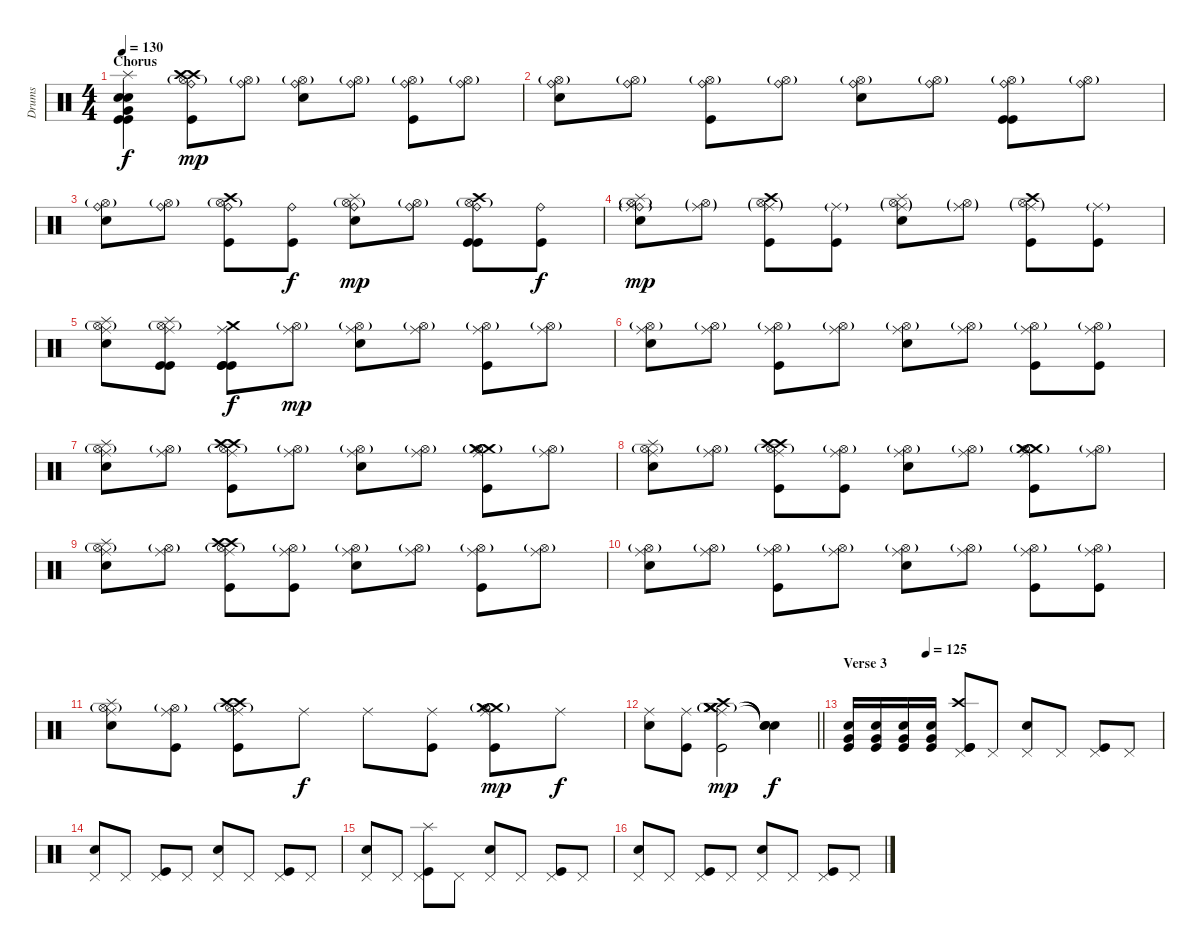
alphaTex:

\track ("Drums" "Drums") {instrument percussion}
\staff {score}
\articulation defaults
\ts (4 4)
\section ("" "Chorus")
\tempo 130
\clef neutral
\ks c
("Splash (hit)" "Snare (hit) 2" "Very Low Tom (hit)" "Snare (hit) 2" "Kick (hit)" "Kick (hit)").4{dy f} ("Crash high (hit)" "Crash high (hit)" "Ride (bell)" "Hi-Hat (open)"{g} "Kick (hit)").8{dy mp} ("Ride (bell)" "Hi-Hat (open)"{g}).8 ("Ride (bell)" "Hi-Hat (open)"{g} "Snare (hit) 2").8 ("Ride (bell)" "Hi-Hat (open)"{g}).8 ("Ride (bell)" "Hi-Hat (open)"{g} "Kick (hit)").8 ("Ride (bell)" "Hi-Hat (open)"{g}).8 |
("Ride (bell)" "Hi-Hat (open)"{g} "Snare (hit) 2").8 ("Ride (bell)" "Hi-Hat (open)"{g}).8 ("Ride (bell)" "Hi-Hat (open)"{g} "Kick (hit)").8 ("Ride (bell)" "Hi-Hat (open)"{g}).8 ("Ride (bell)" "Hi-Hat (open)"{g} "Snare (hit) 2").8 ("Ride (bell)" "Hi-Hat (open)"{g}).8 ("Ride (bell)" "Hi-Hat (open)"{g} "Kick (hit)" "Kick (hit)").8 ("Ride (bell)" "Hi-Hat (open)"{g}).8 |
("Ride (bell)" "Hi-Hat (open)"{g} "Snare (hit) 2").8 ("Ride (bell)" "Hi-Hat (open)"{g}).8 ("Crash high (hit)" "Ride (bell)" "Hi-Hat (open)"{g} "Kick (hit)").8 ("Ride (bell)" "Kick (hit)").8{dy f} ("Splash (hit)" "Ride (bell)" "Hi-Hat (open)"{g} "Snare (hit) 2").8{dy mp} ("Ride (bell)" "Hi-Hat (open)"{g}).8 ("Crash high (hit)" "Ride (bell)" "Hi-Hat (open)"{g} "Kick (hit)" "Kick (hit)").8 ("Ride (bell)" "Kick (hit)").8{dy f} |
("Ride (bell)" "Splash (hit)" "Hi-Hat (open)"{g} "Snare (hit) 2" "Ride (middle)"{g}).8{dy mp} ("Hi-Hat (open)"{g} "Ride (middle)"{g}).8 ("Crash high (hit)" "Hi-Hat (open)"{g} "Kick (hit)" "Ride (middle)"{g}).8 ("Kick (hit)" "Ride (middle)"{g}).8 ("Splash (hit)" "Hi-Hat (open)"{g} "Snare (hit) 2" "Ride (middle)"{g}).8 ("Hi-Hat (open)"{g} "Ride (middle)"{g}).8 ("Crash high (hit)" "Hi-Hat (open)"{g} "Kick (hit)" "Ride (middle)"{g}).8 ("Kick (hit)" "Ride (middle)"{g}).8 |
("Splash (hit)" "Ride (middle)" "Hi-Hat (open)"{g} "Snare (hit) 2").8 ("Splash (hit)" "Ride (middle)" "Hi-Hat (open)"{g} "Kick (hit)" "Kick (hit)").8 ("Crash medium (hit)" "Ride (middle)" "Kick (hit)" "Kick (hit)" "Kick (hit)").8{dy f} ("Ride (middle)" "Hi-Hat (open)"{g}).8{dy mp} ("Ride (middle)" "Hi-Hat (open)"{g} "Snare (hit) 2").8 ("Ride (middle)" "Hi-Hat (open)"{g}).8 ("Ride (middle)" "Hi-Hat (open)"{g} "Kick (hit)").8 ("Ride (middle)" "Hi-Hat (open)"{g}).8 |
("Ride (middle)" "Hi-Hat (open)"{g} "Snare (hit) 2").8 ("Ride (middle)" "Hi-Hat (open)"{g}).8 ("Ride (middle)" "Hi-Hat (open)"{g} "Kick (hit)").8 ("Ride (middle)" "Hi-Hat (open)"{g}).8 ("Ride (middle)" "Hi-Hat (open)"{g} "Snare (hit) 2").8 ("Ride (middle)" "Hi-Hat (open)"{g}).8 ("Ride (middle)" "Hi-Hat (open)"{g} "Kick (hit)").8 ("Ride (middle)" "Hi-Hat (open)"{g} "Kick (hit)").8 |
("Ride (middle)" "Splash (hit)" "Hi-Hat (open)"{g} "Snare (hit) 2").8 ("Ride (middle)" "Hi-Hat (open)"{g}).8 ("Ride (middle)" "Crash high (hit)" "Hi-Hat (open)"{g} "Crash high (hit)" "Kick (hit)").8 ("Ride (middle)" "Hi-Hat (open)"{g}).8 ("Ride (middle)" "Hi-Hat (open)"{g} "Snare (hit) 2").8 ("Ride (middle)" "Hi-Hat (open)"{g}).8 ("Ride (middle)" "Crash medium (hit)" "Hi-Hat (open)"{g} "Crash medium (hit)" "Kick (hit)").8 ("Ride (middle)" "Hi-Hat (open)"{g}).8 |
("Ride (middle)" "Splash (hit)" "Hi-Hat (open)"{g} "Snare (hit) 2").8 ("Ride (middle)" "Hi-Hat (open)"{g}).8 ("Ride (middle)" "Crash high (hit)" "Hi-Hat (open)"{g} "Crash high (hit)" "Kick (hit)").8 ("Ride (middle)" "Hi-Hat (open)"{g} "Kick (hit)").8 ("Ride (middle)" "Hi-Hat (open)"{g} "Snare (hit) 2").8 ("Ride (middle)" "Hi-Hat (open)"{g}).8 ("Ride (middle)" "Crash medium (hit)" "Hi-Hat (open)"{g} "Crash medium (hit)" "Kick (hit)").8 ("Ride (middle)" "Hi-Hat (open)"{g}).8 |
("Ride (middle)" "Splash (hit)" "Hi-Hat (open)"{g} "Snare (hit) 2").8 ("Ride (middle)" "Hi-Hat (open)"{g}).8 ("Ride (middle)" "Crash high (hit)" "Hi-Hat (open)"{g} "Crash high (hit)" "Kick (hit)").8 ("Ride (middle)" "Hi-Hat (open)"{g} "Kick (hit)").8 ("Ride (middle)" "Hi-Hat (open)"{g} "Snare (hit) 2").8 ("Ride (middle)" "Hi-Hat (open)"{g}).8 ("Ride (middle)" "Hi-Hat (open)"{g} "Kick (hit)").8 ("Ride (middle)" "Hi-Hat (open)"{g}).8 |
("Ride (middle)" "Hi-Hat (open)"{g} "Snare (hit) 2").8 ("Ride (middle)" "Hi-Hat (open)"{g}).8 ("Ride (middle)" "Hi-Hat (open)"{g} "Kick (hit)").8 ("Ride (middle)" "Hi-Hat (open)"{g}).8 ("Ride (middle)" "Hi-Hat (open)"{g} "Snare (hit) 2").8 ("Ride (middle)" "Hi-Hat (open)"{g}).8 ("Ride (middle)" "Hi-Hat (open)"{g} "Kick (hit)").8 ("Ride (middle)" "Hi-Hat (open)"{g} "Kick (hit)").8 |
("Ride (middle)" "Splash (hit)" "Hi-Hat (open)"{g} "Snare (hit) 2").8 ("Ride (middle)" "Hi-Hat (open)"{g} "Kick (hit)").8 ("Ride (middle)" "Crash high (hit)" "Hi-Hat (open)"{g} "Crash high (hit)" "Kick (hit)").8 "Ride (middle)".8{dy f} "Ride (middle)".8 ("Ride (middle)" "Kick (hit)").8 ("Ride (middle)" "Crash medium (hit)" "Hi-Hat (open)"{g} "Crash medium (hit)" "Kick (hit)").8{dy mp} "Ride (middle)".8{dy f} |
\barLineRight lightlight
("Ride (middle)" "Snare (hit) 2").8 ("Ride (middle)" "Kick (hit)").8 ("Ride (middle)" "Crash medium (hit)" "Crash medium (hit)"{g} "Crash medium (hit)" "Crash high (hit)" "Kick (hit)").2{dy mp} ("Snare (hit)"{t} "Snare (hit)"{t} "Snare (hit)"{t}).4{dy f} |
\section ("" "Verse 3")
\tempo (125 0.25)
("Kick (hit)" "Electric Snare (hit)" "Very Low Tom (hit)").16 ("Kick (hit)" "Electric Snare (hit)" "Very Low Tom (hit)").16 ("Kick (hit)" "Electric Snare (hit)" "Very Low Tom (hit)").16 ("Kick (hit)" "Electric Snare (hit)" "Very Low Tom (hit)").16 ("Crash high (hit)" "Pedal Hi-Hat (hit)" "Kick (hit)" "Kick (hit)").8 "Pedal Hi-Hat (hit)".8 ("Pedal Hi-Hat (hit)" "Snare (hit) 2").8 "Pedal Hi-Hat (hit)".8 ("Pedal Hi-Hat (hit)" "Kick (hit)").8 "Pedal Hi-Hat (hit)".8 |
("Pedal Hi-Hat (hit)" "Snare (hit) 2").8 "Pedal Hi-Hat (hit)".8 ("Pedal Hi-Hat (hit)" "Kick (hit)").8 "Pedal Hi-Hat (hit)".8 ("Pedal Hi-Hat (hit)" "Snare (hit) 2").8 "Pedal Hi-Hat (hit)".8 ("Pedal Hi-Hat (hit)" "Kick (hit)").8 "Pedal Hi-Hat (hit)".8 |
("Pedal Hi-Hat (hit)" "Snare (hit) 2").8 "Pedal Hi-Hat (hit)".8 ("Splash (hit)" "Pedal Hi-Hat (hit)" "Kick (hit)").8 "Pedal Hi-Hat (hit)".8 ("Pedal Hi-Hat (hit)" "Snare (hit) 2").8 "Pedal Hi-Hat (hit)".8 ("Pedal Hi-Hat (hit)" "Kick (hit)").8 "Pedal Hi-Hat (hit)".8 |
("Pedal Hi-Hat (hit)" "Snare (hit) 2").8 "Pedal Hi-Hat (hit)".8 ("Pedal Hi-Hat (hit)" "Kick (hit)").8 "Pedal Hi-Hat (hit)".8 ("Pedal Hi-Hat (hit)" "Snare (hit) 2").8 "Pedal Hi-Hat (hit)".8 ("Pedal Hi-Hat (hit)" "Kick (hit)").8 "Pedal Hi-Hat (hit)".8
